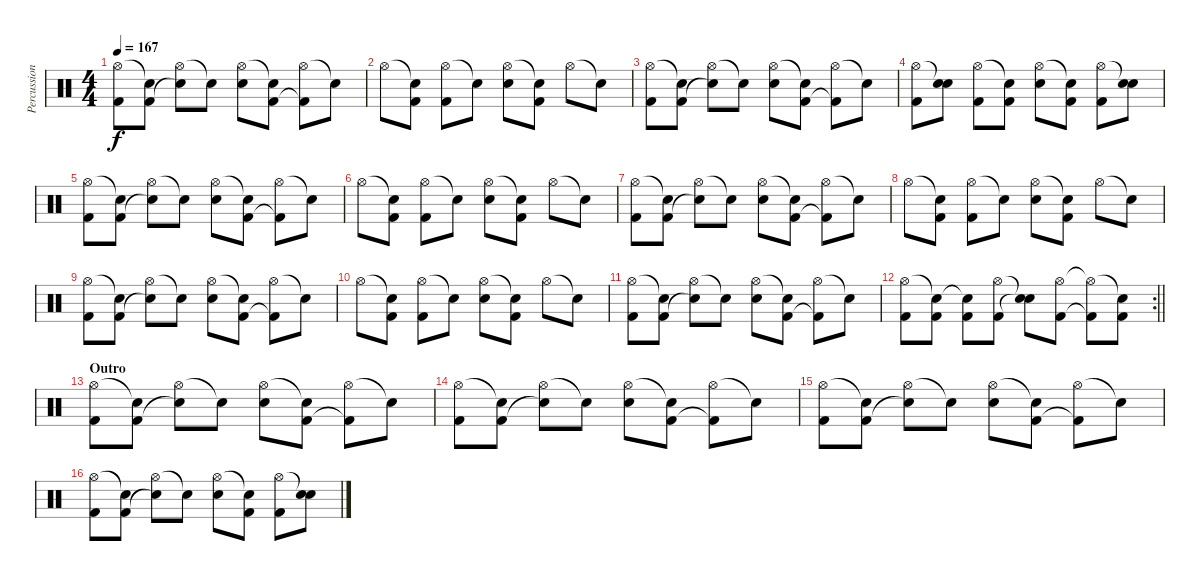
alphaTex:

\track ("Percussion" "Percussion") {instrument percussion}
\staff {score}
\articulation defaults
\ts (4 4)
\tempo 167
\clef neutral
\ks c
("Hi-Hat (open)" "Kick (hit) 2").8{dy f} ("Snare (hit)"{t} "Kick (hit) 2").8 ("Hi-Hat (open)" "Snare (hit)"{t}).8 "Snare (hit)"{t}.8 ("Hi-Hat (open)" "Electric Snare (hit)").8 ("Snare (hit)"{t} "Kick (hit) 2").8 ("Hi-Hat (open)" "Kick (hit) 2"{t}).8 "Snare (hit)"{t}.8 |
"Hi-Hat (open)".8 ("Snare (hit)"{t} "Kick (hit) 2").8 ("Hi-Hat (open)" "Kick (hit) 2").8 "Snare (hit)"{t}.8 ("Hi-Hat (open)" "Electric Snare (hit)").8 ("Snare (hit)"{t} "Kick (hit) 2").8 "Hi-Hat (open)".8 "Snare (hit)"{t}.8 |
("Hi-Hat (open)" "Kick (hit) 2").8 ("Snare (hit)"{t} "Kick (hit) 2").8 ("Hi-Hat (open)" "Snare (hit)"{t}).8 "Snare (hit)"{t}.8 ("Hi-Hat (open)" "Electric Snare (hit)").8 ("Snare (hit)"{t} "Kick (hit) 2").8 ("Hi-Hat (open)" "Kick (hit) 2"{t}).8 "Snare (hit)"{t}.8 |
("Hi-Hat (open)" "Kick (hit) 2").8 ("Snare (hit)"{t} "Electric Snare (hit)").8 ("Hi-Hat (open)" "Kick (hit) 2").8 ("Snare (hit)"{t} "Kick (hit) 2").8 ("Hi-Hat (open)" "Electric Snare (hit)").8 ("Snare (hit)"{t} "Kick (hit) 2").8 ("Hi-Hat (open)" "Kick (hit) 2").8 ("Snare (hit)"{t} "Electric Snare (hit)").8 |
("Hi-Hat (open)" "Kick (hit) 2").8 ("Snare (hit)"{t} "Kick (hit) 2").8 ("Hi-Hat (open)" "Snare (hit)"{t}).8 "Snare (hit)"{t}.8 ("Hi-Hat (open)" "Electric Snare (hit)").8 ("Snare (hit)"{t} "Kick (hit) 2").8 ("Hi-Hat (open)" "Kick (hit) 2"{t}).8 "Snare (hit)"{t}.8 |
"Hi-Hat (open)".8 ("Snare (hit)"{t} "Kick (hit) 2").8 ("Hi-Hat (open)" "Kick (hit) 2").8 "Snare (hit)"{t}.8 ("Hi-Hat (open)" "Electric Snare (hit)").8 ("Snare (hit)"{t} "Kick (hit) 2").8 "Hi-Hat (open)".8 "Snare (hit)"{t}.8 |
("Hi-Hat (open)" "Kick (hit) 2").8 ("Snare (hit)"{t} "Kick (hit) 2").8 ("Hi-Hat (open)" "Snare (hit)"{t}).8 "Snare (hit)"{t}.8 ("Hi-Hat (open)" "Electric Snare (hit)").8 ("Snare (hit)"{t} "Kick (hit) 2").8 ("Hi-Hat (open)" "Kick (hit) 2"{t}).8 "Snare (hit)"{t}.8 |
"Hi-Hat (open)".8 ("Snare (hit)"{t} "Kick (hit) 2").8 ("Hi-Hat (open)" "Kick (hit) 2").8 "Snare (hit)"{t}.8 ("Hi-Hat (open)" "Electric Snare (hit)").8 ("Snare (hit)"{t} "Kick (hit) 2").8 "Hi-Hat (open)".8 "Snare (hit)"{t}.8 |
("Hi-Hat (open)" "Kick (hit) 2").8 ("Snare (hit)"{t} "Kick (hit) 2").8 ("Hi-Hat (open)" "Snare (hit)"{t}).8 "Snare (hit)"{t}.8 ("Hi-Hat (open)" "Electric Snare (hit)").8 ("Snare (hit)"{t} "Kick (hit) 2").8 ("Hi-Hat (open)" "Kick (hit) 2"{t}).8 "Snare (hit)"{t}.8 |
"Hi-Hat (open)".8 ("Snare (hit)"{t} "Kick (hit) 2").8 ("Hi-Hat (open)" "Kick (hit) 2").8 "Snare (hit)"{t}.8 ("Hi-Hat (open)" "Electric Snare (hit)").8 ("Snare (hit)"{t} "Kick (hit) 2").8 "Hi-Hat (open)".8 "Snare (hit)"{t}.8 |
("Hi-Hat (open)" "Kick (hit) 2").8 ("Snare (hit)"{t} "Kick (hit) 2").8 ("Hi-Hat (open)" "Snare (hit)"{t}).8 "Snare (hit)"{t}.8 ("Hi-Hat (open)" "Electric Snare (hit)").8 ("Snare (hit)"{t} "Kick (hit) 2").8 ("Hi-Hat (open)" "Kick (hit) 2"{t}).8 "Snare (hit)"{t}.8 |
\rc 2
\barLineRight lightlight
("Hi-Hat (open)" "Kick (hit) 2").8 ("Snare (hit)"{t} "Kick (hit) 2").8 ("Snare (hit)"{t} "Kick (hit) 2").8 ("Hi-Hat (open)" "Kick (hit) 2").8 ("Snare (hit)"{t} "Snare (hit)"{t}).8 ("Hi-Hat (open)" "Kick (hit) 2").8 ("Hi-Hat (open)"{t} "Kick (hit) 2"{t}).8 ("Snare (hit)"{t} "Kick (hit) 2").8 |
\section ("" "Outro")
("Hi-Hat (open)" "Kick (hit) 2").8 ("Snare (hit)"{t} "Kick (hit) 2").8 ("Hi-Hat (open)" "Snare (hit)"{t}).8 "Snare (hit)"{t}.8 ("Hi-Hat (open)" "Electric Snare (hit)").8 ("Snare (hit)"{t} "Kick (hit) 2").8 ("Hi-Hat (open)" "Kick (hit) 2"{t}).8 "Snare (hit)"{t}.8 |
("Hi-Hat (open)" "Kick (hit) 2").8 ("Snare (hit)"{t} "Kick (hit) 2").8 ("Hi-Hat (open)" "Snare (hit)"{t}).8 "Snare (hit)"{t}.8 ("Hi-Hat (open)" "Electric Snare (hit)").8 ("Snare (hit)"{t} "Kick (hit) 2").8 ("Hi-Hat (open)" "Kick (hit) 2"{t}).8 "Snare (hit)"{t}.8 |
("Hi-Hat (open)" "Kick (hit) 2").8 ("Snare (hit)"{t} "Kick (hit) 2").8 ("Hi-Hat (open)" "Snare (hit)"{t}).8 "Snare (hit)"{t}.8 ("Hi-Hat (open)" "Electric Snare (hit)").8 ("Snare (hit)"{t} "Kick (hit) 2").8 ("Hi-Hat (open)" "Kick (hit) 2"{t}).8 "Snare (hit)"{t}.8 |
("Hi-Hat (open)" "Kick (hit) 2").8 ("Snare (hit)"{t} "Kick (hit) 2").8 ("Hi-Hat (open)" "Snare (hit)"{t}).8 "Snare (hit)"{t}.8 ("Hi-Hat (open)" "Electric Snare (hit)").8 ("Snare (hit)"{t} "Kick (hit) 2").8 ("Hi-Hat (open)" "Kick (hit) 2").8 ("Snare (hit)"{t} "Electric Snare (hit)").8
